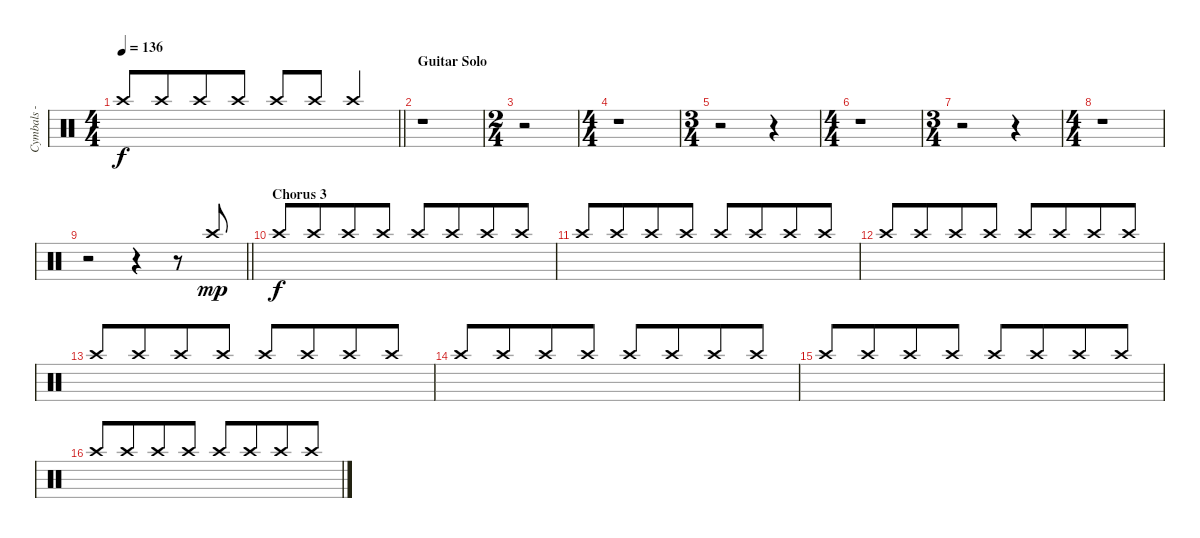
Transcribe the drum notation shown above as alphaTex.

\track ("Cymbals - crash - left" "Cymbals - ") {instrument percussion}
\staff {score}
\articulation defaults
\ts (4 4)
\tempo 136
\clef neutral
\barLineRight lightlight
\ks c "Crash high (hit)".8{dy f beam Up} "Crash high (hit)".8{beam Up beam merge} "Crash high (hit)".8{beam Up} "Crash high (hit)".8{beam Up} "Crash high (hit)".8{beam Up} "Crash high (hit)".8{beam Up} "Crash high (hit)".4{beam Up}
|
\section ("" "Guitar Solo")
r.1 |
\ts (2 4)
r.2 |
\ts (4 4)
r.1 |
\ts (3 4)
r.2 r.4 |
\ts (4 4)
r.1 |
\ts (3 4)
r.2 r.4 |
\ts (4 4)
r.1 |
\barLineRight lightlight
r.2 r.4 r.8 "Crash high (hit)".8{dy mp beam Up} |
\section ("" "Chorus 3")
"Crash high (hit)".8{dy f beam Up} "Crash high (hit)".8{beam Up beam merge} "Crash high (hit)".8{beam Up} "Crash high (hit)".8{beam Up} "Crash high (hit)".8{beam Up} "Crash high (hit)".8{beam Up beam merge} "Crash high (hit)".8{beam Up} "Crash high (hit)".8{beam Up} |
"Crash high (hit)".8{beam Up} "Crash high (hit)".8{beam Up beam merge} "Crash high (hit)".8{beam Up} "Crash high (hit)".8{beam Up} "Crash high (hit)".8{beam Up} "Crash high (hit)".8{beam Up beam merge} "Crash high (hit)".8{beam Up} "Crash high (hit)".8{beam Up} |
"Crash high (hit)".8{beam Up} "Crash high (hit)".8{beam Up beam merge} "Crash high (hit)".8{beam Up} "Crash high (hit)".8{beam Up} "Crash high (hit)".8{beam Up} "Crash high (hit)".8{beam Up beam merge} "Crash high (hit)".8{beam Up} "Crash high (hit)".8{beam Up} |
"Crash high (hit)".8{beam Up} "Crash high (hit)".8{beam Up beam merge} "Crash high (hit)".8{beam Up} "Crash high (hit)".8{beam Up} "Crash high (hit)".8{beam Up} "Crash high (hit)".8{beam Up beam merge} "Crash high (hit)".8{beam Up} "Crash high (hit)".8{beam Up} |
"Crash high (hit)".8{beam Up} "Crash high (hit)".8{beam Up beam merge} "Crash high (hit)".8{beam Up} "Crash high (hit)".8{beam Up} "Crash high (hit)".8{beam Up} "Crash high (hit)".8{beam Up beam merge} "Crash high (hit)".8{beam Up} "Crash high (hit)".8{beam Up} |
"Crash high (hit)".8{beam Up} "Crash high (hit)".8{beam Up beam merge} "Crash high (hit)".8{beam Up} "Crash high (hit)".8{beam Up} "Crash high (hit)".8{beam Up} "Crash high (hit)".8{beam Up beam merge} "Crash high (hit)".8{beam Up} "Crash high (hit)".8{beam Up} |
"Crash high (hit)".8{beam Up} "Crash high (hit)".8{beam Up beam merge} "Crash high (hit)".8{beam Up} "Crash high (hit)".8{beam Up} "Crash high (hit)".8{beam Up} "Crash high (hit)".8{beam Up beam merge} "Crash high (hit)".8{beam Up} "Crash high (hit)".8{beam Up}
